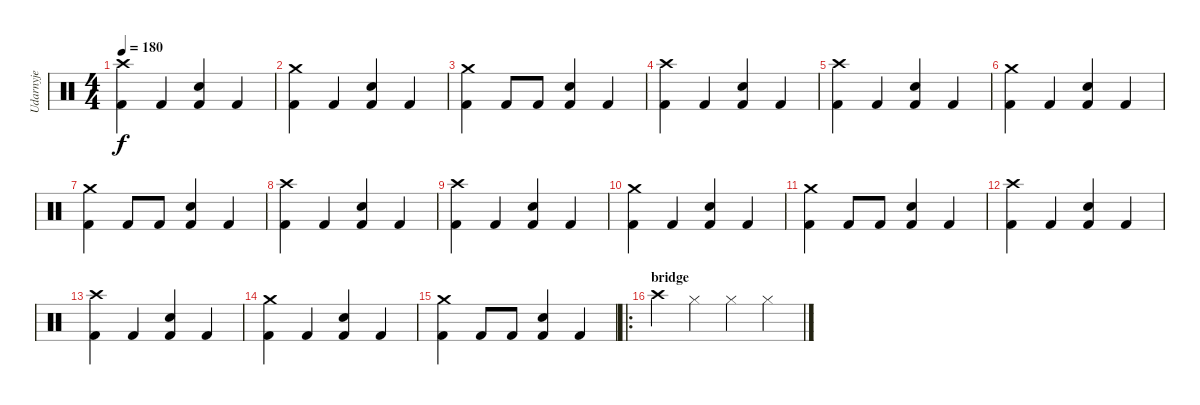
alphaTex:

\track ("Udarnyje" "Udarnyje") {instrument percussion}
\staff {score}
\articulation defaults
\ts (4 4)
\tempo 180
\clef neutral
\ks c
("Crash high (hit)" "Kick (hit) 2").4{dy f} "Kick (hit) 2".4 ("Electric Snare (hit)" "Kick (hit) 2").4 "Kick (hit) 2".4 |
("Crash medium (hit)" "Kick (hit) 2").4 "Kick (hit) 2".4 ("Electric Snare (hit)" "Kick (hit) 2").4 "Kick (hit) 2".4 |
("Crash medium (hit)" "Kick (hit) 2").4 "Kick (hit) 2".8 "Kick (hit) 2".8 ("Electric Snare (hit)" "Kick (hit) 2").4 "Kick (hit) 2".4 |
("Crash high (hit)" "Kick (hit) 2").4 "Kick (hit) 2".4 ("Electric Snare (hit)" "Kick (hit) 2").4 "Kick (hit) 2".4 |
("Crash high (hit)" "Kick (hit) 2").4 "Kick (hit) 2".4 ("Electric Snare (hit)" "Kick (hit) 2").4 "Kick (hit) 2".4 |
("Crash medium (hit)" "Kick (hit) 2").4 "Kick (hit) 2".4 ("Electric Snare (hit)" "Kick (hit) 2").4 "Kick (hit) 2".4 |
("Crash medium (hit)" "Kick (hit) 2").4 "Kick (hit) 2".8 "Kick (hit) 2".8 ("Electric Snare (hit)" "Kick (hit) 2").4 "Kick (hit) 2".4 |
("Crash high (hit)" "Kick (hit) 2").4 "Kick (hit) 2".4 ("Electric Snare (hit)" "Kick (hit) 2").4 "Kick (hit) 2".4 |
("Crash high (hit)" "Kick (hit) 2").4 "Kick (hit) 2".4 ("Electric Snare (hit)" "Kick (hit) 2").4 "Kick (hit) 2".4 |
("Crash medium (hit)" "Kick (hit) 2").4 "Kick (hit) 2".4 ("Electric Snare (hit)" "Kick (hit) 2").4 "Kick (hit) 2".4 |
("Crash medium (hit)" "Kick (hit) 2").4 "Kick (hit) 2".8 "Kick (hit) 2".8 ("Electric Snare (hit)" "Kick (hit) 2").4 "Kick (hit) 2".4 |
("Crash high (hit)" "Kick (hit) 2").4 "Kick (hit) 2".4 ("Electric Snare (hit)" "Kick (hit) 2").4 "Kick (hit) 2".4 |
("Crash high (hit)" "Kick (hit) 2").4 "Kick (hit) 2".4 ("Electric Snare (hit)" "Kick (hit) 2").4 "Kick (hit) 2".4 |
("Crash medium (hit)" "Kick (hit) 2").4 "Kick (hit) 2".4 ("Electric Snare (hit)" "Kick (hit) 2").4 "Kick (hit) 2".4 |
("Crash medium (hit)" "Kick (hit) 2").4 "Kick (hit) 2".8 "Kick (hit) 2".8 ("Electric Snare (hit)" "Kick (hit) 2").4 "Kick (hit) 2".4 |
\ro
\section ("" "bridge")
"Crash high (hit)".4 "Hi-Hat (closed)".4 "Hi-Hat (closed)".4 "Hi-Hat (closed)".4
